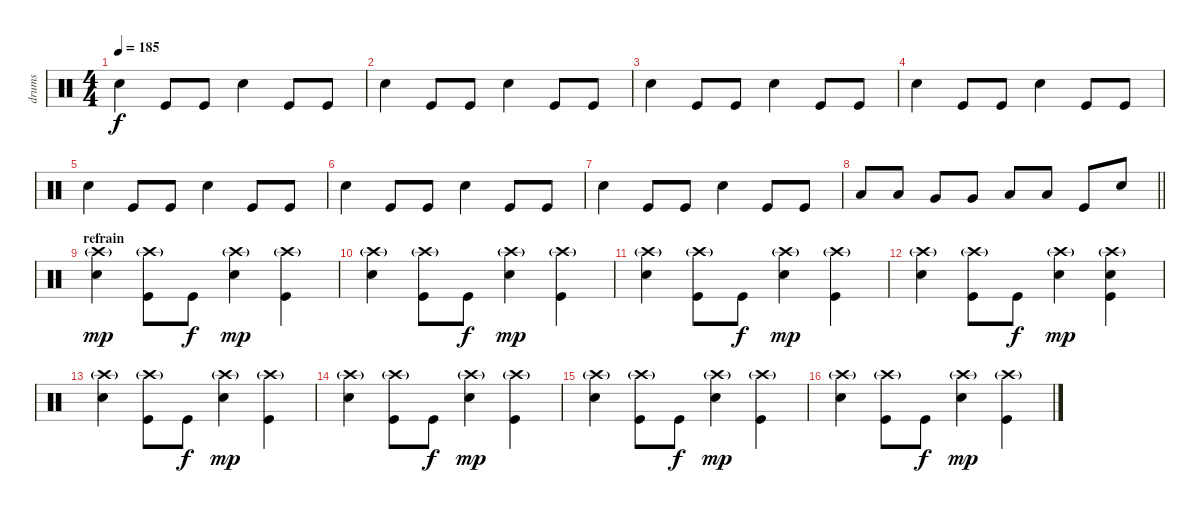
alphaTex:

\track ("drums" "drums") {instrument percussion}
\staff {score}
\articulation defaults
\ts (4 4)
\tempo 185
\clef neutral
\ks c "Electric Snare (hit)".4{dy f} "Kick (hit)".8 "Kick (hit)".8 "Electric Snare (hit)".4 "Kick (hit)".8 "Kick (hit)".8
|
"Electric Snare (hit)".4 "Kick (hit)".8 "Kick (hit)".8 "Electric Snare (hit)".4 "Kick (hit)".8 "Kick (hit)".8 |
"Electric Snare (hit)".4 "Kick (hit)".8 "Kick (hit)".8 "Electric Snare (hit)".4 "Kick (hit)".8 "Kick (hit)".8 |
"Electric Snare (hit)".4 "Kick (hit)".8 "Kick (hit)".8 "Electric Snare (hit)".4 "Kick (hit)".8 "Kick (hit)".8 |
"Electric Snare (hit)".4 "Kick (hit)".8 "Kick (hit)".8 "Electric Snare (hit)".4 "Kick (hit)".8 "Kick (hit)".8 |
"Electric Snare (hit)".4 "Kick (hit)".8 "Kick (hit)".8 "Electric Snare (hit)".4 "Kick (hit)".8 "Kick (hit)".8 |
"Electric Snare (hit)".4 "Kick (hit)".8 "Kick (hit)".8 "Electric Snare (hit)".4 "Kick (hit)".8 "Kick (hit)".8 |
\barLineRight lightlight "Low Tom (hit)".8 "Low Tom (hit)".8 "Very Low Tom (hit)".8 "Very Low Tom (hit)".8 "Low Floor Tom (hit)".8 "Low Floor Tom (hit)".8 "Kick (hit)".8 "Electric Snare (hit)".8
|
\section ("" "refrain")
("Crash high (hit)"{g} "Electric Snare (hit)").4{dy mp} ("Crash high (hit)"{g} "Kick (hit)").8 "Kick (hit)".8{dy f} ("Crash high (hit)"{g} "Electric Snare (hit)").4{dy mp} ("Crash high (hit)"{g} "Kick (hit)").4 |
("Crash high (hit)"{g} "Electric Snare (hit)").4 ("Crash high (hit)"{g} "Kick (hit)").8 "Kick (hit)".8{dy f} ("Crash high (hit)"{g} "Electric Snare (hit)").4{dy mp} ("Crash high (hit)"{g} "Kick (hit)").4 |
("Crash high (hit)"{g} "Electric Snare (hit)").4 ("Crash high (hit)"{g} "Kick (hit)").8 "Kick (hit)".8{dy f} ("Crash high (hit)"{g} "Electric Snare (hit)").4{dy mp} ("Crash high (hit)"{g} "Kick (hit)").4 |
("Crash high (hit)"{g} "Electric Snare (hit)").4 ("Crash high (hit)"{g} "Kick (hit)").8 "Kick (hit)".8{dy f} ("Crash high (hit)"{g} "Electric Snare (hit)").4{dy mp} ("Crash high (hit)"{g} "Electric Snare (hit)" "Kick (hit)").4 |
("Crash high (hit)"{g} "Electric Snare (hit)").4 ("Crash high (hit)"{g} "Kick (hit)").8 "Kick (hit)".8{dy f} ("Crash high (hit)"{g} "Electric Snare (hit)").4{dy mp} ("Crash high (hit)"{g} "Kick (hit)").4 |
("Crash high (hit)"{g} "Electric Snare (hit)").4 ("Crash high (hit)"{g} "Kick (hit)").8 "Kick (hit)".8{dy f} ("Crash high (hit)"{g} "Electric Snare (hit)").4{dy mp} ("Crash high (hit)"{g} "Kick (hit)").4 |
("Crash high (hit)"{g} "Electric Snare (hit)").4 ("Crash high (hit)"{g} "Kick (hit)").8 "Kick (hit)".8{dy f} ("Crash high (hit)"{g} "Electric Snare (hit)").4{dy mp} ("Crash high (hit)"{g} "Kick (hit)").4 |
("Crash high (hit)"{g} "Electric Snare (hit)").4 ("Crash high (hit)"{g} "Kick (hit)").8 "Kick (hit)".8{dy f} ("Crash high (hit)"{g} "Electric Snare (hit)").4{dy mp} ("Crash high (hit)"{g} "Kick (hit)").4
